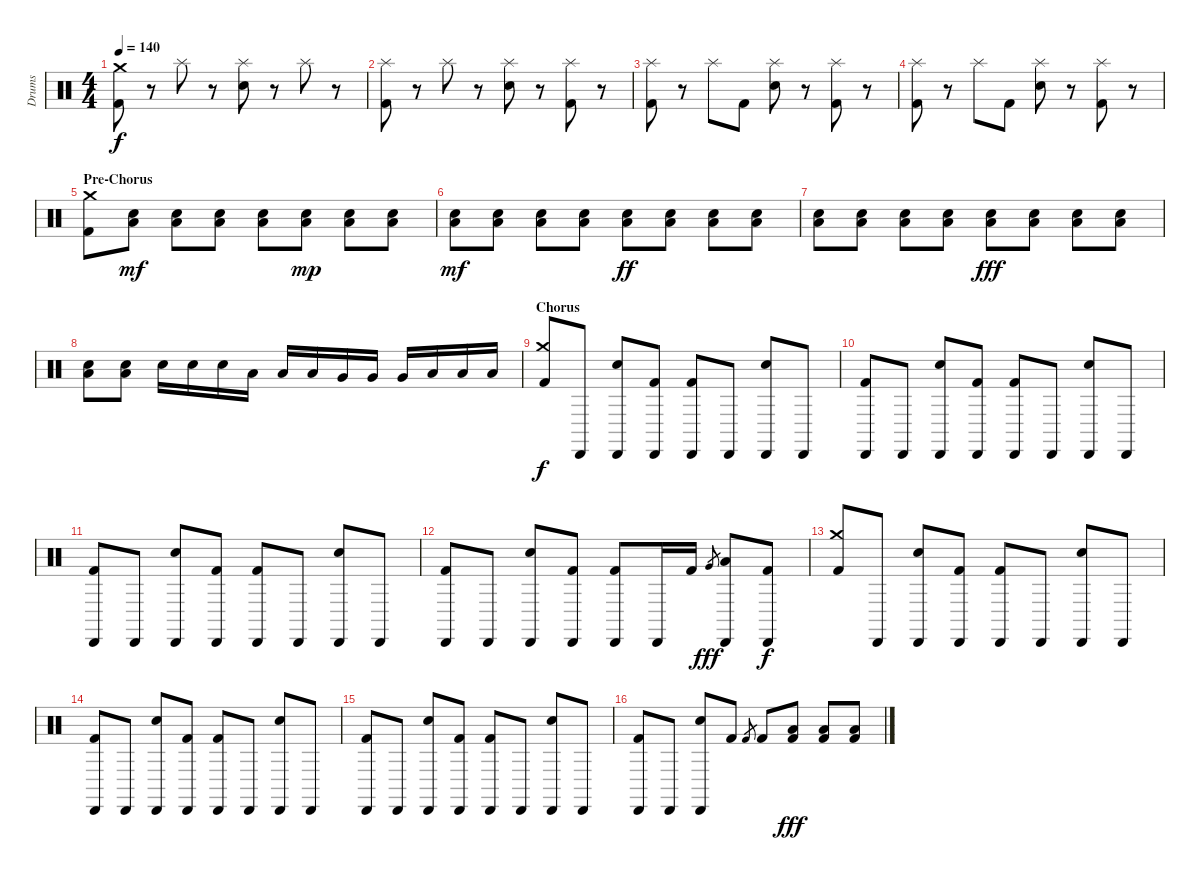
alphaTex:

\track ("Drums" "Drums") {instrument percussion}
\staff {score}
\articulation defaults
\ts (4 4)
\tempo 140
\clef neutral
\ks c
("Crash medium (hit)" "Kick (hit) 2").8{dy f} r.8 "Splash (hit)".8 r.8 ("Splash (hit)" "Electric Snare (hit)").8 r.8 "Splash (hit)".8 r.8 |
("Splash (hit)" "Kick (hit) 2").8 r.8 "Splash (hit)".8 r.8 ("Splash (hit)" "Electric Snare (hit)").8 r.8 ("Splash (hit)" "Kick (hit) 2").8 r.8 |
("Splash (hit)" "Kick (hit) 2").8 r.8 "Splash (hit)".8 "Kick (hit) 2".8 ("Splash (hit)" "Electric Snare (hit)").8 r.8 ("Splash (hit)" "Kick (hit) 2").8 r.8 |
("Splash (hit)" "Kick (hit) 2").8 r.8 "Splash (hit)".8 "Kick (hit) 2".8 ("Splash (hit)" "Electric Snare (hit)").8 r.8 ("Splash (hit)" "Kick (hit) 2").8 r.8 |
\section ("" "Pre-Chorus")
("Crash medium (hit)" "Kick (hit) 2").8 ("Electric Snare (hit)" "Low Floor Tom (hit)").8{dy mf} ("Electric Snare (hit)" "Low Floor Tom (hit)").8 ("Electric Snare (hit)" "Low Floor Tom (hit)").8 ("Electric Snare (hit)" "Low Floor Tom (hit)").8 ("Electric Snare (hit)" "Low Floor Tom (hit)").8{dy mp} ("Electric Snare (hit)" "Low Floor Tom (hit)").8 ("Electric Snare (hit)" "Low Floor Tom (hit)").8 |
("Electric Snare (hit)" "Low Floor Tom (hit)").8{dy mf} ("Electric Snare (hit)" "Low Floor Tom (hit)").8 ("Electric Snare (hit)" "Low Floor Tom (hit)").8 ("Electric Snare (hit)" "Low Floor Tom (hit)").8 ("Electric Snare (hit)" "Low Floor Tom (hit)").8{dy ff} ("Electric Snare (hit)" "Low Floor Tom (hit)").8 ("Electric Snare (hit)" "Low Floor Tom (hit)").8 ("Electric Snare (hit)" "Low Floor Tom (hit)").8 |
("Electric Snare (hit)" "Low Floor Tom (hit)").8 ("Electric Snare (hit)" "Low Floor Tom (hit)").8 ("Electric Snare (hit)" "Low Floor Tom (hit)").8 ("Electric Snare (hit)" "Low Floor Tom (hit)").8 ("Electric Snare (hit)" "Low Floor Tom (hit)").8{dy fff} ("Electric Snare (hit)" "Low Floor Tom (hit)").8 ("Electric Snare (hit)" "Low Floor Tom (hit)").8 ("Electric Snare (hit)" "Low Floor Tom (hit)").8 |
("Electric Snare (hit)" "Low Floor Tom (hit)").8 ("Electric Snare (hit)" "Low Floor Tom (hit)").8 "Electric Snare (hit)".16 "Electric Snare (hit)".16 "Electric Snare (hit)".16 "Low Tom (hit)".16 "Low Tom (hit)".16 "Low Tom (hit)".16 "Very Low Tom (hit)".16 "Very Low Tom (hit)".16 "Very Low Tom (hit)".16 "Low Floor Tom (hit)".16 "Low Floor Tom (hit)".16 "Low Floor Tom (hit)".16 |
\section ("" "Chorus")
("Crash medium (hit)" "Kick (hit) 2").8{dy f} "Cabasa (hit)".8 ("Cabasa (hit)" "Electric Snare (hit)").8 ("Cabasa (hit)" "Kick (hit) 2").8 ("Cabasa (hit)" "Kick (hit) 2").8 "Cabasa (hit)".8 ("Cabasa (hit)" "Electric Snare (hit)").8 "Cabasa (hit)".8 |
("Cabasa (hit)" "Kick (hit) 2").8 "Cabasa (hit)".8 ("Cabasa (hit)" "Electric Snare (hit)").8 ("Cabasa (hit)" "Kick (hit) 2").8 ("Cabasa (hit)" "Kick (hit) 2").8 "Cabasa (hit)".8 ("Cabasa (hit)" "Electric Snare (hit)").8 "Cabasa (hit)".8 |
("Cabasa (hit)" "Kick (hit) 2").8 "Cabasa (hit)".8 ("Cabasa (hit)" "Electric Snare (hit)").8 ("Cabasa (hit)" "Kick (hit) 2").8 ("Cabasa (hit)" "Kick (hit) 2").8 "Cabasa (hit)".8 ("Cabasa (hit)" "Electric Snare (hit)").8 "Cabasa (hit)".8 |
("Cabasa (hit)" "Kick (hit) 2").8 "Cabasa (hit)".8 ("Cabasa (hit)" "Electric Snare (hit)").8 ("Cabasa (hit)" "Kick (hit) 2").8 ("Cabasa (hit)" "Kick (hit) 2").8 "Cabasa (hit)".16 "Kick (hit) 2".16 "Very Low Tom (hit)".8{gr dy fff} ("Cabasa (hit)" "Low Floor Tom (hit)").8 ("Cabasa (hit)" "Kick (hit) 2").8{dy f} |
("Crash medium (hit)" "Kick (hit) 2").8 "Cabasa (hit)".8 ("Cabasa (hit)" "Electric Snare (hit)").8 ("Cabasa (hit)" "Kick (hit) 2").8 ("Cabasa (hit)" "Kick (hit) 2").8 "Cabasa (hit)".8 ("Cabasa (hit)" "Electric Snare (hit)").8 "Cabasa (hit)".8 |
("Cabasa (hit)" "Kick (hit) 2").8 "Cabasa (hit)".8 ("Cabasa (hit)" "Electric Snare (hit)").8 ("Cabasa (hit)" "Kick (hit) 2").8 ("Cabasa (hit)" "Kick (hit) 2").8 "Cabasa (hit)".8 ("Cabasa (hit)" "Electric Snare (hit)").8 "Cabasa (hit)".8 |
("Cabasa (hit)" "Kick (hit) 2").8 "Cabasa (hit)".8 ("Cabasa (hit)" "Electric Snare (hit)").8 ("Cabasa (hit)" "Kick (hit) 2").8 ("Cabasa (hit)" "Kick (hit) 2").8 "Cabasa (hit)".8 ("Cabasa (hit)" "Electric Snare (hit)").8 "Cabasa (hit)".8 |
("Cabasa (hit)" "Kick (hit) 2").8 "Cabasa (hit)".8 ("Cabasa (hit)" "Electric Snare (hit)").8 "Kick (hit) 2".8 "Kick (hit) 2".8{gr} "Kick (hit) 2".8 ("Low Floor Tom (hit)" "Kick (hit) 2").8{dy fff} ("Low Floor Tom (hit)" "Kick (hit) 2").8 ("Low Floor Tom (hit)" "Kick (hit) 2").8
